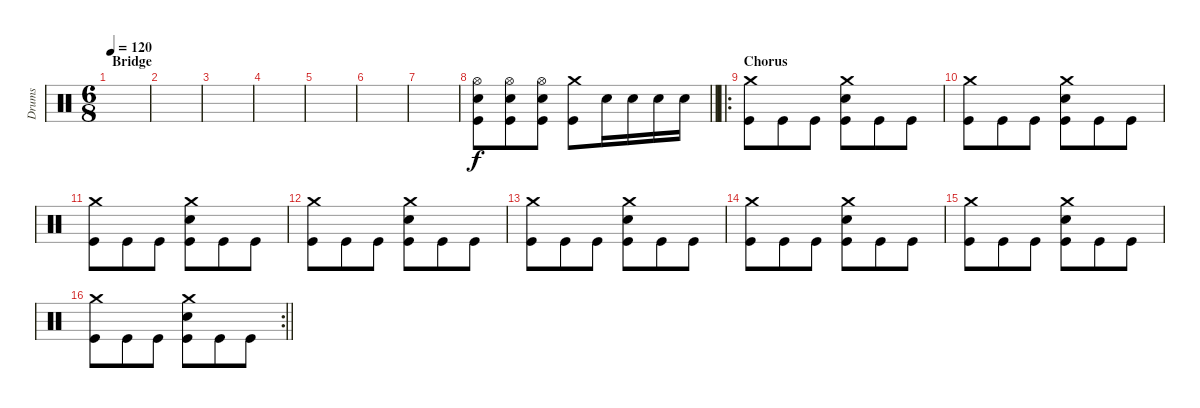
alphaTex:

\track ("Drums" "Drums") {instrument percussion}
\staff {score}
\articulation defaults
\ts (6 8)
\section ("" "Bridge")
\tempo 120
\clef neutral
\ks c
|
|
|
|
|
|
|
\barLineRight lightlight
("Hi-Hat (open)" "Snare (hit) 2" "Kick (hit)").8 ("Hi-Hat (open)" "Snare (hit) 2" "Kick (hit)").8 ("Hi-Hat (open)" "Snare (hit) 2" "Kick (hit)").8 ("Crash medium (hit)" "Kick (hit)").8 "Snare (hit) 2".16 "Snare (hit) 2".16 "Snare (hit) 2".16 "Snare (hit) 2".16 |
\ro
\section ("" "Chorus")
("Crash medium (hit)" "Kick (hit)").8 "Kick (hit)".8 "Kick (hit)".8 ("Crash medium (hit)" "Snare (hit) 2" "Kick (hit)").8 "Kick (hit)".8 "Kick (hit)".8 |
("Crash medium (hit)" "Kick (hit)").8 "Kick (hit)".8 "Kick (hit)".8 ("Crash medium (hit)" "Snare (hit) 2" "Kick (hit)").8 "Kick (hit)".8 "Kick (hit)".8 |
("Crash medium (hit)" "Kick (hit)").8 "Kick (hit)".8 "Kick (hit)".8 ("Crash medium (hit)" "Snare (hit) 2" "Kick (hit)").8 "Kick (hit)".8 "Kick (hit)".8 |
("Crash medium (hit)" "Kick (hit)").8 "Kick (hit)".8 "Kick (hit)".8 ("Crash medium (hit)" "Snare (hit) 2" "Kick (hit)").8 "Kick (hit)".8 "Kick (hit)".8 |
("Crash medium (hit)" "Kick (hit)").8 "Kick (hit)".8 "Kick (hit)".8 ("Crash medium (hit)" "Snare (hit) 2" "Kick (hit)").8 "Kick (hit)".8 "Kick (hit)".8 |
("Crash medium (hit)" "Kick (hit)").8 "Kick (hit)".8 "Kick (hit)".8 ("Crash medium (hit)" "Snare (hit) 2" "Kick (hit)").8 "Kick (hit)".8 "Kick (hit)".8 |
("Crash medium (hit)" "Kick (hit)").8 "Kick (hit)".8 "Kick (hit)".8 ("Crash medium (hit)" "Snare (hit) 2" "Kick (hit)").8 "Kick (hit)".8 "Kick (hit)".8 |
\rc 2
\barLineRight lightlight
("Crash medium (hit)" "Kick (hit)").8 "Kick (hit)".8 "Kick (hit)".8 ("Crash medium (hit)" "Snare (hit) 2" "Kick (hit)").8 "Kick (hit)".8 "Kick (hit)".8
